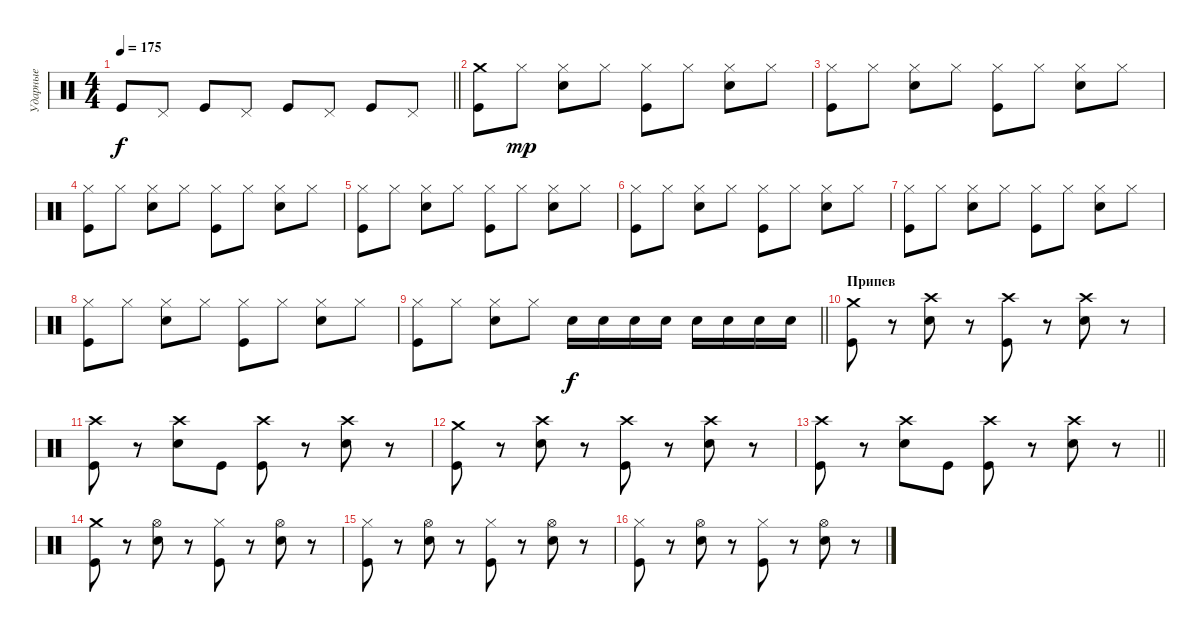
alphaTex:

\track ("Ударные" "Ударные") {instrument percussion}
\staff {score}
\articulation defaults
\ts (4 4)
\tempo 175
\clef neutral
\barLineRight lightlight
\ks c "Kick (hit)".8{dy f} "Pedal Hi-Hat (hit)".8 "Kick (hit)".8 "Pedal Hi-Hat (hit)".8 "Kick (hit)".8 "Pedal Hi-Hat (hit)".8 "Kick (hit)".8 "Pedal Hi-Hat (hit)".8
|
\section ("" " ")
("Crash medium (hit)" "Kick (hit)").8 "Hi-Hat (closed)".8{dy mp} ("Hi-Hat (closed)" "Electric Snare (hit)").8 "Hi-Hat (closed)".8 ("Hi-Hat (closed)" "Kick (hit)").8 "Hi-Hat (closed)".8 ("Hi-Hat (closed)" "Electric Snare (hit)").8 "Hi-Hat (closed)".8 |
("Hi-Hat (closed)" "Kick (hit)").8 "Hi-Hat (closed)".8 ("Hi-Hat (closed)" "Electric Snare (hit)").8 "Hi-Hat (closed)".8 ("Hi-Hat (closed)" "Kick (hit)").8 "Hi-Hat (closed)".8 ("Hi-Hat (closed)" "Electric Snare (hit)").8 "Hi-Hat (closed)".8 |
("Hi-Hat (closed)" "Kick (hit)").8 "Hi-Hat (closed)".8 ("Hi-Hat (closed)" "Electric Snare (hit)").8 "Hi-Hat (closed)".8 ("Hi-Hat (closed)" "Kick (hit)").8 "Hi-Hat (closed)".8 ("Hi-Hat (closed)" "Electric Snare (hit)").8 "Hi-Hat (closed)".8 |
("Hi-Hat (closed)" "Kick (hit)").8 "Hi-Hat (closed)".8 ("Hi-Hat (closed)" "Electric Snare (hit)").8 "Hi-Hat (closed)".8 ("Hi-Hat (closed)" "Kick (hit)").8 "Hi-Hat (closed)".8 ("Hi-Hat (closed)" "Electric Snare (hit)").8 "Hi-Hat (closed)".8 |
("Hi-Hat (closed)" "Kick (hit)").8 "Hi-Hat (closed)".8 ("Hi-Hat (closed)" "Electric Snare (hit)").8 "Hi-Hat (closed)".8 ("Hi-Hat (closed)" "Kick (hit)").8 "Hi-Hat (closed)".8 ("Hi-Hat (closed)" "Electric Snare (hit)").8 "Hi-Hat (closed)".8 |
("Hi-Hat (closed)" "Kick (hit)").8 "Hi-Hat (closed)".8 ("Hi-Hat (closed)" "Electric Snare (hit)").8 "Hi-Hat (closed)".8 ("Hi-Hat (closed)" "Kick (hit)").8 "Hi-Hat (closed)".8 ("Hi-Hat (closed)" "Electric Snare (hit)").8 "Hi-Hat (closed)".8 |
("Hi-Hat (closed)" "Kick (hit)").8 "Hi-Hat (closed)".8 ("Hi-Hat (closed)" "Electric Snare (hit)").8 "Hi-Hat (closed)".8 ("Hi-Hat (closed)" "Kick (hit)").8 "Hi-Hat (closed)".8 ("Hi-Hat (closed)" "Electric Snare (hit)").8 "Hi-Hat (closed)".8 |
\barLineRight lightlight
("Hi-Hat (closed)" "Kick (hit)").8 "Hi-Hat (closed)".8 ("Hi-Hat (closed)" "Electric Snare (hit)").8 "Hi-Hat (closed)".8 "Electric Snare (hit)".16{dy f} "Electric Snare (hit)".16 "Electric Snare (hit)".16 "Electric Snare (hit)".16 "Electric Snare (hit)".16 "Electric Snare (hit)".16 "Electric Snare (hit)".16 "Electric Snare (hit)".16 |
\section ("" "Припев")
("Crash medium (hit)" "Kick (hit)").8 r.8 ("Crash high (hit)" "Electric Snare (hit)").8 r.8 ("Crash high (hit)" "Kick (hit)").8 r.8 ("Crash high (hit)" "Electric Snare (hit)").8 r.8 |
("Crash high (hit)" "Kick (hit)").8 r.8 ("Crash high (hit)" "Electric Snare (hit)").8 "Kick (hit)".8 ("Crash high (hit)" "Kick (hit)").8 r.8 ("Crash high (hit)" "Electric Snare (hit)").8 r.8 |
("Crash medium (hit)" "Kick (hit)").8 r.8 ("Crash high (hit)" "Electric Snare (hit)").8 r.8 ("Crash high (hit)" "Kick (hit)").8 r.8 ("Crash high (hit)" "Electric Snare (hit)").8 r.8 |
\barLineRight lightlight
("Crash high (hit)" "Kick (hit)").8 r.8 ("Crash high (hit)" "Electric Snare (hit)").8 "Kick (hit)".8 ("Crash high (hit)" "Kick (hit)").8 r.8 ("Crash high (hit)" "Electric Snare (hit)").8 r.8 |
("Crash medium (hit)" "Kick (hit)").8 r.8 ("Hi-Hat (open)" "Electric Snare (hit)").8 r.8 ("Hi-Hat (closed)" "Kick (hit)").8 r.8 ("Hi-Hat (open)" "Electric Snare (hit)").8 r.8 |
("Hi-Hat (closed)" "Kick (hit)").8 r.8 ("Hi-Hat (open)" "Electric Snare (hit)").8 r.8 ("Hi-Hat (closed)" "Kick (hit)").8 r.8 ("Hi-Hat (open)" "Electric Snare (hit)").8 r.8 |
("Hi-Hat (closed)" "Kick (hit)").8 r.8 ("Hi-Hat (open)" "Electric Snare (hit)").8 r.8 ("Hi-Hat (closed)" "Kick (hit)").8 r.8 ("Hi-Hat (open)" "Electric Snare (hit)").8 r.8
